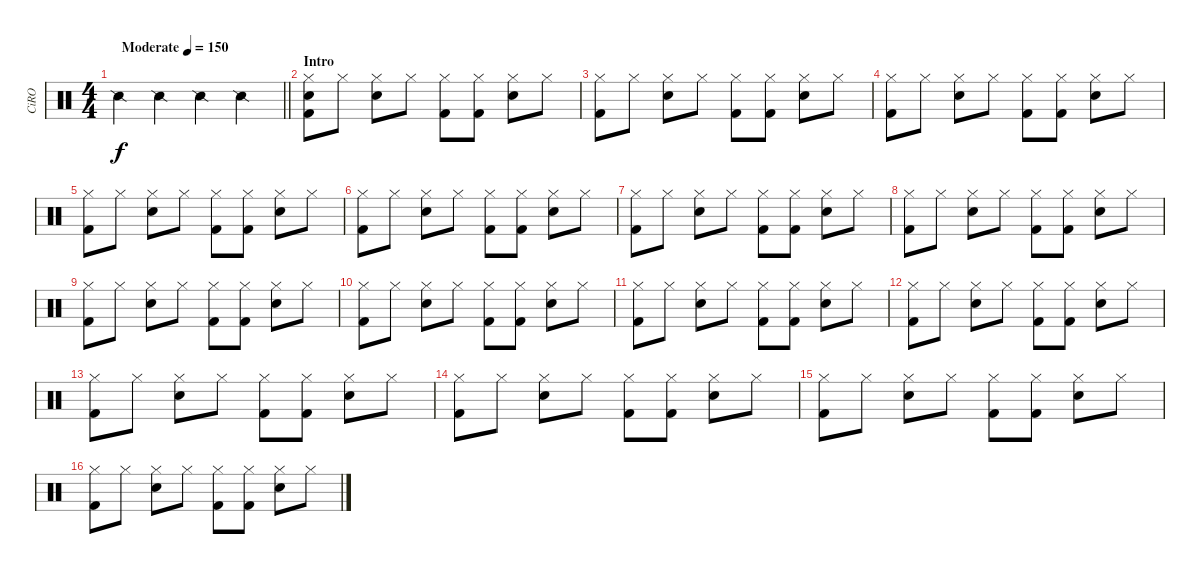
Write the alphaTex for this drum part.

\track ("CiRO" "CiRO") {instrument percussion}
\staff {score}
\articulation defaults
\ts (4 4)
\tempo (150 "Moderate")
\clef neutral
\barLineRight lightlight
\ks c "Snare (side stick) 2".4{dy f} "Snare (side stick) 2".4 "Snare (side stick) 2".4 "Snare (side stick) 2".4
|
\section ("" "Intro")
("Hi-Hat (closed)" "Electric Snare (hit)" "Kick (hit) 2").8 "Hi-Hat (closed)".8 ("Hi-Hat (closed)" "Electric Snare (hit)").8 "Hi-Hat (closed)".8 ("Hi-Hat (closed)" "Kick (hit) 2").8 ("Hi-Hat (closed)" "Kick (hit) 2").8 ("Hi-Hat (closed)" "Electric Snare (hit)").8 "Hi-Hat (closed)".8 |
("Hi-Hat (closed)" "Kick (hit) 2").8 "Hi-Hat (closed)".8 ("Hi-Hat (closed)" "Electric Snare (hit)").8 "Hi-Hat (closed)".8 ("Hi-Hat (closed)" "Kick (hit) 2").8 ("Hi-Hat (closed)" "Kick (hit) 2").8 ("Hi-Hat (closed)" "Electric Snare (hit)").8 "Hi-Hat (closed)".8 |
("Hi-Hat (closed)" "Kick (hit) 2").8 "Hi-Hat (closed)".8 ("Hi-Hat (closed)" "Electric Snare (hit)").8 "Hi-Hat (closed)".8 ("Hi-Hat (closed)" "Kick (hit) 2").8 ("Hi-Hat (closed)" "Kick (hit) 2").8 ("Hi-Hat (closed)" "Electric Snare (hit)").8 "Hi-Hat (closed)".8 |
("Hi-Hat (closed)" "Kick (hit) 2").8 "Hi-Hat (closed)".8 ("Hi-Hat (closed)" "Electric Snare (hit)").8 "Hi-Hat (closed)".8 ("Hi-Hat (closed)" "Kick (hit) 2").8 ("Hi-Hat (closed)" "Kick (hit) 2").8 ("Hi-Hat (closed)" "Electric Snare (hit)").8 "Hi-Hat (closed)".8 |
("Hi-Hat (closed)" "Kick (hit) 2").8 "Hi-Hat (closed)".8 ("Hi-Hat (closed)" "Electric Snare (hit)").8 "Hi-Hat (closed)".8 ("Hi-Hat (closed)" "Kick (hit) 2").8 ("Hi-Hat (closed)" "Kick (hit) 2").8 ("Hi-Hat (closed)" "Electric Snare (hit)").8 "Hi-Hat (closed)".8 |
("Hi-Hat (closed)" "Kick (hit) 2").8 "Hi-Hat (closed)".8 ("Hi-Hat (closed)" "Electric Snare (hit)").8 "Hi-Hat (closed)".8 ("Hi-Hat (closed)" "Kick (hit) 2").8 ("Hi-Hat (closed)" "Kick (hit) 2").8 ("Hi-Hat (closed)" "Electric Snare (hit)").8 "Hi-Hat (closed)".8 |
("Hi-Hat (closed)" "Kick (hit) 2").8 "Hi-Hat (closed)".8 ("Hi-Hat (closed)" "Electric Snare (hit)").8 "Hi-Hat (closed)".8 ("Hi-Hat (closed)" "Kick (hit) 2").8 ("Hi-Hat (closed)" "Kick (hit) 2").8 ("Hi-Hat (closed)" "Electric Snare (hit)").8 "Hi-Hat (closed)".8 |
("Hi-Hat (closed)" "Kick (hit) 2").8 "Hi-Hat (closed)".8 ("Hi-Hat (closed)" "Electric Snare (hit)").8 "Hi-Hat (closed)".8 ("Hi-Hat (closed)" "Kick (hit) 2").8 ("Hi-Hat (closed)" "Kick (hit) 2").8 ("Hi-Hat (closed)" "Electric Snare (hit)").8 "Hi-Hat (closed)".8 |
("Hi-Hat (closed)" "Kick (hit) 2").8 "Hi-Hat (closed)".8 ("Hi-Hat (closed)" "Electric Snare (hit)").8 "Hi-Hat (closed)".8 ("Hi-Hat (closed)" "Kick (hit) 2").8 ("Hi-Hat (closed)" "Kick (hit) 2").8 ("Hi-Hat (closed)" "Electric Snare (hit)").8 "Hi-Hat (closed)".8 |
("Hi-Hat (closed)" "Kick (hit) 2").8 "Hi-Hat (closed)".8 ("Hi-Hat (closed)" "Electric Snare (hit)").8 "Hi-Hat (closed)".8 ("Hi-Hat (closed)" "Kick (hit) 2").8 ("Hi-Hat (closed)" "Kick (hit) 2").8 ("Hi-Hat (closed)" "Electric Snare (hit)").8 "Hi-Hat (closed)".8 |
("Hi-Hat (closed)" "Kick (hit) 2").8 "Hi-Hat (closed)".8 ("Hi-Hat (closed)" "Electric Snare (hit)").8 "Hi-Hat (closed)".8 ("Hi-Hat (closed)" "Kick (hit) 2").8 ("Hi-Hat (closed)" "Kick (hit) 2").8 ("Hi-Hat (closed)" "Electric Snare (hit)").8 "Hi-Hat (closed)".8 |
("Hi-Hat (closed)" "Kick (hit) 2").8 "Hi-Hat (closed)".8 ("Hi-Hat (closed)" "Electric Snare (hit)").8 "Hi-Hat (closed)".8 ("Hi-Hat (closed)" "Kick (hit) 2").8 ("Hi-Hat (closed)" "Kick (hit) 2").8 ("Hi-Hat (closed)" "Electric Snare (hit)").8 "Hi-Hat (closed)".8 |
("Hi-Hat (closed)" "Kick (hit) 2").8 "Hi-Hat (closed)".8 ("Hi-Hat (closed)" "Electric Snare (hit)").8 "Hi-Hat (closed)".8 ("Hi-Hat (closed)" "Kick (hit) 2").8 ("Hi-Hat (closed)" "Kick (hit) 2").8 ("Hi-Hat (closed)" "Electric Snare (hit)").8 "Hi-Hat (closed)".8 |
("Hi-Hat (closed)" "Kick (hit) 2").8 "Hi-Hat (closed)".8 ("Hi-Hat (closed)" "Electric Snare (hit)").8 "Hi-Hat (closed)".8 ("Hi-Hat (closed)" "Kick (hit) 2").8 ("Hi-Hat (closed)" "Kick (hit) 2").8 ("Hi-Hat (closed)" "Electric Snare (hit)").8 "Hi-Hat (closed)".8 |
("Hi-Hat (closed)" "Kick (hit) 2").8 "Hi-Hat (closed)".8 ("Hi-Hat (closed)" "Electric Snare (hit)").8 "Hi-Hat (closed)".8 ("Hi-Hat (closed)" "Kick (hit) 2").8 ("Hi-Hat (closed)" "Kick (hit) 2").8 ("Hi-Hat (closed)" "Electric Snare (hit)").8 "Hi-Hat (closed)".8
